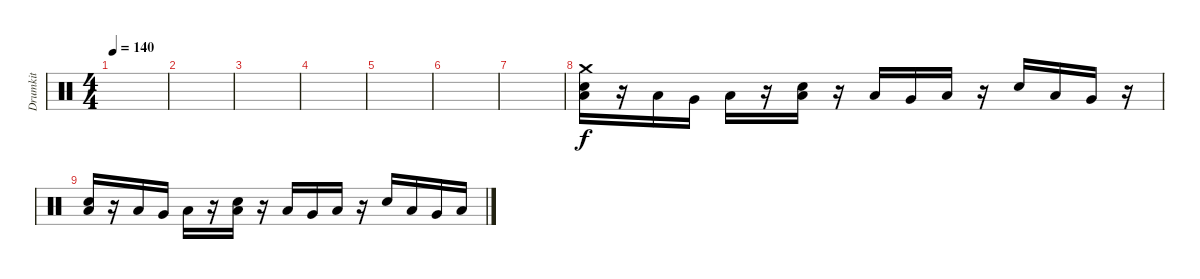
\track ("Drumkit" "Drumkit") {instrument percussion}
\staff {score}
\articulation defaults
\ts (4 4)
\tempo 140
\clef neutral
\ks c
|
|
|
|
|
|
|
("Snare (hit) 2" "Low Tom (hit)" "Crash medium (hit)").16{volume 0} r.16 "Low Tom (hit)".16 "Very Low Tom (hit)".16 "Low Floor Tom (hit)".16 r.16 ("Snare (hit) 2" "Low Tom (hit)").16 r.16 "Low Tom (hit)".16 "Very Low Tom (hit)".16 "Low Floor Tom (hit)".16 r.16 "Snare (hit) 2".16 "Low Tom (hit)".16 "Very Low Tom (hit)".16 r.16 |
("Snare (hit) 2" "Low Tom (hit)").16 r.16 "Low Tom (hit)".16 "Very Low Tom (hit)".16 "Low Floor Tom (hit)".16 r.16 ("Snare (hit) 2" "Low Tom (hit)").16 r.16 "Low Tom (hit)".16 "Very Low Tom (hit)".16 "Low Floor Tom (hit)".16 r.16 "Snare (hit) 2".16 "Low Tom (hit)".16 "Very Low Tom (hit)".16 "Low Tom (hit)".16{volume 6}
